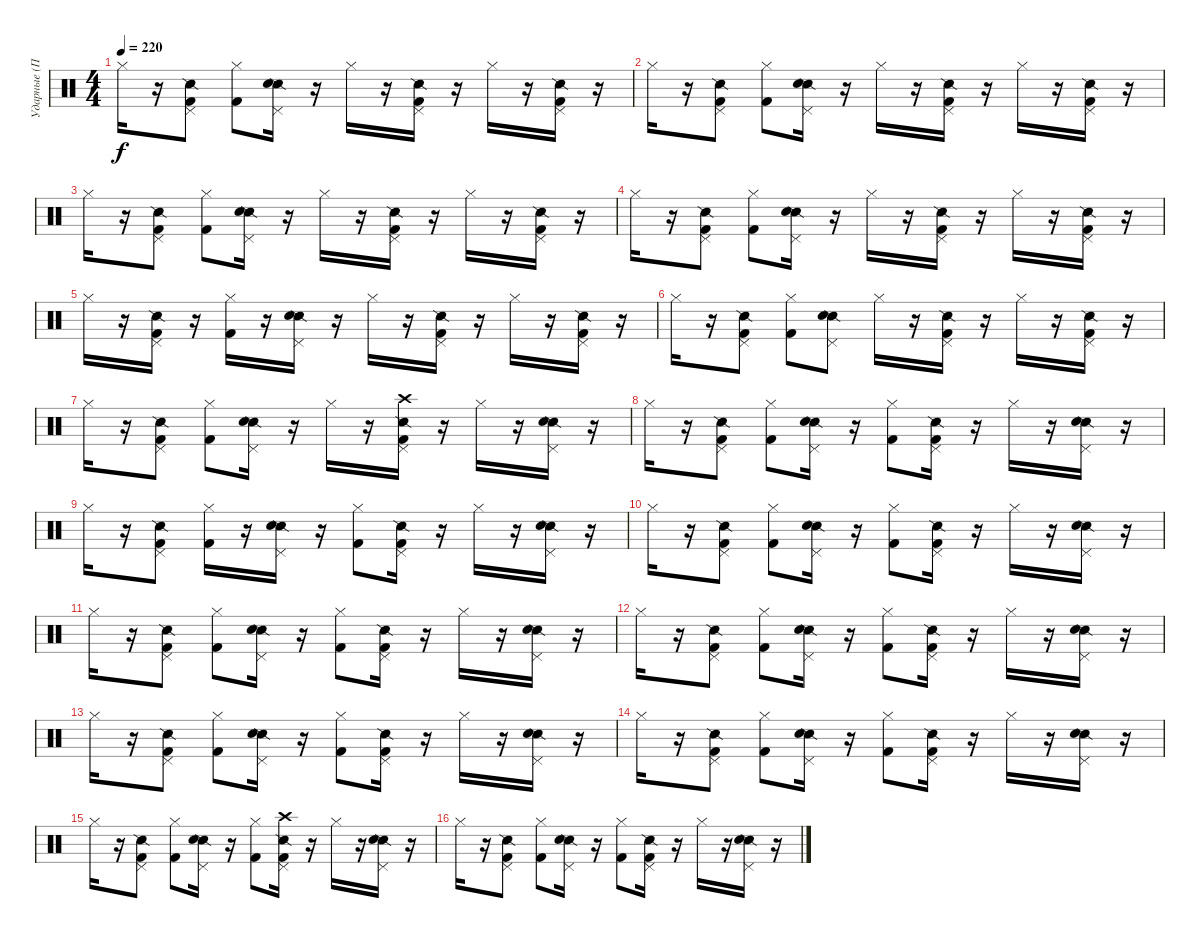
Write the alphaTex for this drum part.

\track ("Ударные (Потапкин)" "Ударные (П") {instrument percussion}
\staff {score}
\articulation defaults
\ts (4 4)
\tempo 220
\clef neutral
\ks c "Hi-Hat (closed)".16{dy f}
r.16 ("Snare (side stick) 2" "Kick (hit) 2" "Pedal Hi-Hat (hit)").8 ("Kick (hit) 2" "Hi-Hat (closed)").8 ("Snare (side stick) 2" "Pedal Hi-Hat (hit)" "Snare (hit) 2").16 r.16 "Hi-Hat (closed)".16 r.16 ("Snare (side stick) 2" "Pedal Hi-Hat (hit)" "Kick (hit) 2").16 r.16 "Hi-Hat (closed)".16 r.16 ("Snare (side stick) 2" "Pedal Hi-Hat (hit)" "Kick (hit) 2").16 r.16 |
"Hi-Hat (closed)".16 r.16 ("Snare (side stick) 2" "Kick (hit) 2" "Pedal Hi-Hat (hit)").8 ("Kick (hit) 2" "Hi-Hat (closed)").8 ("Snare (side stick) 2" "Pedal Hi-Hat (hit)" "Snare (hit) 2").16 r.16 "Hi-Hat (closed)".16 r.16 ("Snare (side stick) 2" "Pedal Hi-Hat (hit)" "Kick (hit) 2").16 r.16 "Hi-Hat (closed)".16 r.16 ("Snare (side stick) 2" "Pedal Hi-Hat (hit)" "Kick (hit) 2").16 r.16 |
"Hi-Hat (closed)".16 r.16 ("Snare (side stick) 2" "Kick (hit) 2" "Pedal Hi-Hat (hit)").8 ("Kick (hit) 2" "Hi-Hat (closed)").8 ("Snare (side stick) 2" "Pedal Hi-Hat (hit)" "Snare (hit) 2").16 r.16 "Hi-Hat (closed)".16 r.16 ("Snare (side stick) 2" "Pedal Hi-Hat (hit)" "Kick (hit) 2").16 r.16 "Hi-Hat (closed)".16 r.16 ("Snare (side stick) 2" "Pedal Hi-Hat (hit)" "Kick (hit) 2").16 r.16 |
"Hi-Hat (closed)".16 r.16 ("Snare (side stick) 2" "Kick (hit) 2" "Pedal Hi-Hat (hit)").8 ("Kick (hit) 2" "Hi-Hat (closed)").8 ("Snare (side stick) 2" "Pedal Hi-Hat (hit)" "Snare (hit) 2").16 r.16 "Hi-Hat (closed)".16 r.16 ("Snare (side stick) 2" "Pedal Hi-Hat (hit)" "Kick (hit) 2").16 r.16 "Hi-Hat (closed)".16 r.16 ("Snare (side stick) 2" "Pedal Hi-Hat (hit)" "Kick (hit) 2").16 r.16 |
"Hi-Hat (closed)".16 r.16 ("Snare (side stick) 2" "Kick (hit) 2" "Pedal Hi-Hat (hit)").16 r.16 ("Kick (hit) 2" "Hi-Hat (closed)").16 r.16 ("Snare (side stick) 2" "Pedal Hi-Hat (hit)" "Snare (hit) 2").16 r.16 "Hi-Hat (closed)".16 r.16 ("Snare (side stick) 2" "Pedal Hi-Hat (hit)" "Kick (hit) 2").16 r.16 "Hi-Hat (closed)".16 r.16 ("Snare (side stick) 2" "Pedal Hi-Hat (hit)" "Kick (hit) 2").16 r.16 |
"Hi-Hat (closed)".16 r.16 ("Snare (side stick) 2" "Kick (hit) 2" "Pedal Hi-Hat (hit)").8 ("Kick (hit) 2" "Hi-Hat (closed)").8 ("Snare (side stick) 2" "Pedal Hi-Hat (hit)" "Snare (hit) 2").8 "Hi-Hat (closed)".16 r.16 ("Snare (side stick) 2" "Pedal Hi-Hat (hit)" "Kick (hit) 2").16 r.16 "Hi-Hat (closed)".16 r.16 ("Snare (side stick) 2" "Pedal Hi-Hat (hit)" "Kick (hit) 2").16 r.16 |
"Hi-Hat (closed)".16 r.16 ("Snare (side stick) 2" "Kick (hit) 2" "Pedal Hi-Hat (hit)").8 ("Kick (hit) 2" "Hi-Hat (closed)").8 ("Snare (side stick) 2" "Pedal Hi-Hat (hit)" "Snare (hit) 2").16 r.16 "Hi-Hat (closed)".16 r.16 ("Crash high (hit)" "Snare (side stick) 2" "Pedal Hi-Hat (hit)" "Kick (hit) 2").16 r.16 "Hi-Hat (closed)".16 r.16 ("Snare (side stick) 2" "Pedal Hi-Hat (hit)" "Snare (hit) 2").16 r.16 |
"Hi-Hat (closed)".16 r.16 ("Snare (side stick) 2" "Kick (hit) 2" "Pedal Hi-Hat (hit)").8 ("Kick (hit) 2" "Hi-Hat (closed)").8 ("Snare (side stick) 2" "Pedal Hi-Hat (hit)" "Snare (hit) 2").16 r.16 ("Hi-Hat (closed)" "Kick (hit) 2").8 ("Snare (side stick) 2" "Pedal Hi-Hat (hit)" "Kick (hit) 2").16 r.16 "Hi-Hat (closed)".16 r.16 ("Snare (side stick) 2" "Pedal Hi-Hat (hit)" "Snare (hit) 2").16 r.16 |
"Hi-Hat (closed)".16 r.16 ("Snare (side stick) 2" "Kick (hit) 2" "Pedal Hi-Hat (hit)").8 ("Kick (hit) 2" "Hi-Hat (closed)").16 r.16 ("Snare (side stick) 2" "Pedal Hi-Hat (hit)" "Snare (hit) 2").16 r.16 ("Hi-Hat (closed)" "Kick (hit) 2").8 ("Snare (side stick) 2" "Pedal Hi-Hat (hit)" "Kick (hit) 2").16 r.16 "Hi-Hat (closed)".16 r.16 ("Snare (side stick) 2" "Pedal Hi-Hat (hit)" "Snare (hit) 2").16 r.16 |
"Hi-Hat (closed)".16 r.16 ("Snare (side stick) 2" "Kick (hit) 2" "Pedal Hi-Hat (hit)").8 ("Kick (hit) 2" "Hi-Hat (closed)").8 ("Snare (side stick) 2" "Pedal Hi-Hat (hit)" "Snare (hit) 2").16 r.16 ("Hi-Hat (closed)" "Kick (hit) 2").8 ("Snare (side stick) 2" "Pedal Hi-Hat (hit)" "Kick (hit) 2").16 r.16 "Hi-Hat (closed)".16 r.16 ("Snare (side stick) 2" "Pedal Hi-Hat (hit)" "Snare (hit) 2").16 r.16 |
"Hi-Hat (closed)".16 r.16 ("Snare (side stick) 2" "Kick (hit) 2" "Pedal Hi-Hat (hit)").8 ("Kick (hit) 2" "Hi-Hat (closed)").8 ("Snare (side stick) 2" "Pedal Hi-Hat (hit)" "Snare (hit) 2").16 r.16 ("Hi-Hat (closed)" "Kick (hit) 2").8 ("Snare (side stick) 2" "Pedal Hi-Hat (hit)" "Kick (hit) 2").16 r.16 "Hi-Hat (closed)".16 r.16 ("Snare (side stick) 2" "Pedal Hi-Hat (hit)" "Snare (hit) 2").16 r.16 |
"Hi-Hat (closed)".16 r.16 ("Snare (side stick) 2" "Kick (hit) 2" "Pedal Hi-Hat (hit)").8 ("Kick (hit) 2" "Hi-Hat (closed)").8 ("Snare (side stick) 2" "Pedal Hi-Hat (hit)" "Snare (hit) 2").16 r.16 ("Hi-Hat (closed)" "Kick (hit) 2").8 ("Snare (side stick) 2" "Pedal Hi-Hat (hit)" "Kick (hit) 2").16 r.16 "Hi-Hat (closed)".16 r.16 ("Snare (side stick) 2" "Pedal Hi-Hat (hit)" "Snare (hit) 2").16 r.16 |
"Hi-Hat (closed)".16 r.16 ("Snare (side stick) 2" "Kick (hit) 2" "Pedal Hi-Hat (hit)").8 ("Kick (hit) 2" "Hi-Hat (closed)").8 ("Snare (side stick) 2" "Pedal Hi-Hat (hit)" "Snare (hit) 2").16 r.16 ("Hi-Hat (closed)" "Kick (hit) 2").8 ("Snare (side stick) 2" "Pedal Hi-Hat (hit)" "Kick (hit) 2").16 r.16 "Hi-Hat (closed)".16 r.16 ("Snare (side stick) 2" "Pedal Hi-Hat (hit)" "Snare (hit) 2").16 r.16 |
"Hi-Hat (closed)".16 r.16 ("Snare (side stick) 2" "Kick (hit) 2" "Pedal Hi-Hat (hit)").8 ("Kick (hit) 2" "Hi-Hat (closed)").8 ("Snare (side stick) 2" "Pedal Hi-Hat (hit)" "Snare (hit) 2").16 r.16 ("Hi-Hat (closed)" "Kick (hit) 2").8 ("Snare (side stick) 2" "Pedal Hi-Hat (hit)" "Kick (hit) 2").16 r.16 "Hi-Hat (closed)".16 r.16 ("Snare (side stick) 2" "Pedal Hi-Hat (hit)" "Snare (hit) 2").16 r.16 |
"Hi-Hat (closed)".16 r.16 ("Snare (side stick) 2" "Kick (hit) 2" "Pedal Hi-Hat (hit)").8 ("Kick (hit) 2" "Hi-Hat (closed)").8 ("Snare (side stick) 2" "Pedal Hi-Hat (hit)" "Snare (hit) 2").16 r.16 ("Hi-Hat (closed)" "Kick (hit) 2").8 ("Crash high (hit)" "Snare (side stick) 2" "Pedal Hi-Hat (hit)" "Kick (hit) 2").16 r.16 "Hi-Hat (closed)".16 r.16 ("Snare (side stick) 2" "Pedal Hi-Hat (hit)" "Snare (hit) 2").16 r.16 |
"Hi-Hat (closed)".16 r.16 ("Snare (side stick) 2" "Kick (hit) 2" "Pedal Hi-Hat (hit)").8 ("Kick (hit) 2" "Hi-Hat (closed)").8 ("Snare (side stick) 2" "Pedal Hi-Hat (hit)" "Snare (hit) 2").16 r.16 ("Hi-Hat (closed)" "Kick (hit) 2").8 ("Snare (side stick) 2" "Pedal Hi-Hat (hit)" "Kick (hit) 2").16 r.16 "Hi-Hat (closed)".16 r.16 ("Snare (side stick) 2" "Pedal Hi-Hat (hit)" "Snare (hit) 2").16 r.16
